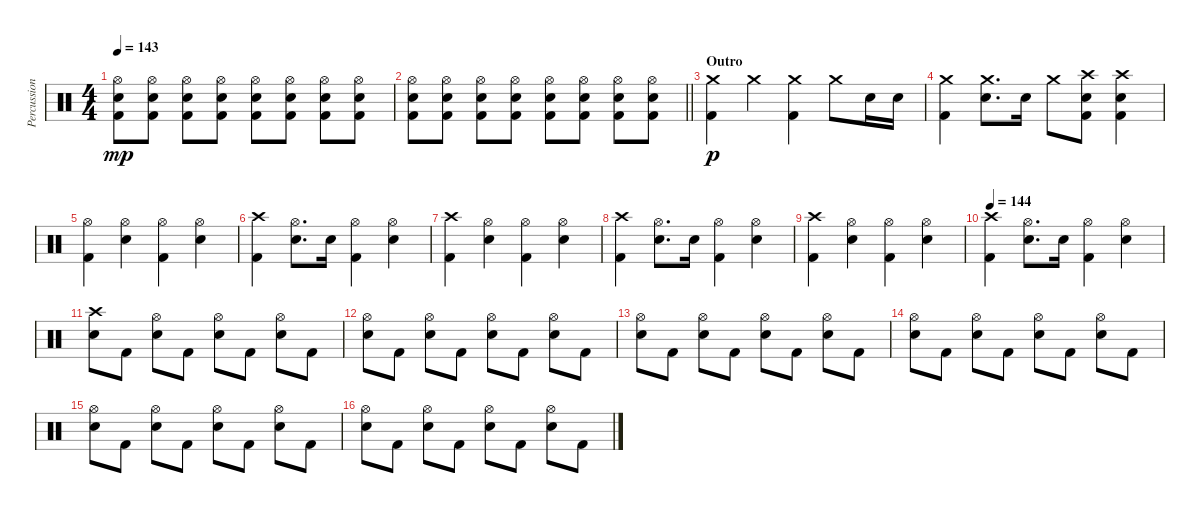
\track ("Percussion" "Percussion") {instrument percussion}
\staff {score}
\articulation defaults
\ts (4 4)
\tempo 143
\clef neutral
\ks c
("Hi-Hat (open)" "Snare (hit) 2" "Kick (hit) 2").8{dy mp} ("Hi-Hat (open)" "Snare (hit) 2" "Kick (hit) 2").8 ("Hi-Hat (open)" "Snare (hit) 2" "Kick (hit) 2").8 ("Hi-Hat (open)" "Snare (hit) 2" "Kick (hit) 2").8 ("Hi-Hat (open)" "Snare (hit) 2" "Kick (hit) 2").8 ("Hi-Hat (open)" "Snare (hit) 2" "Kick (hit) 2").8 ("Hi-Hat (open)" "Snare (hit) 2" "Kick (hit) 2").8 ("Hi-Hat (open)" "Snare (hit) 2" "Kick (hit) 2").8 |
\barLineRight lightlight
("Hi-Hat (open)" "Snare (hit) 2" "Kick (hit) 2").8 ("Hi-Hat (open)" "Snare (hit) 2" "Kick (hit) 2").8 ("Hi-Hat (open)" "Snare (hit) 2" "Kick (hit) 2").8 ("Hi-Hat (open)" "Snare (hit) 2" "Kick (hit) 2").8 ("Hi-Hat (open)" "Snare (hit) 2" "Kick (hit) 2").8 ("Hi-Hat (open)" "Snare (hit) 2" "Kick (hit) 2").8 ("Hi-Hat (open)" "Snare (hit) 2" "Kick (hit) 2").8 ("Hi-Hat (open)" "Snare (hit) 2" "Kick (hit) 2").8 |
\section ("" "Outro")
("Crash medium (hit)" "Kick (hit) 2").4{dy p} "Crash medium (hit)".4 ("Crash medium (hit)" "Kick (hit) 2").4 "Crash medium (hit)".8 "Snare (hit) 2".16 "Snare (hit) 2".16 |
("Crash medium (hit)" "Kick (hit) 2").4 ("Crash medium (hit)" "Snare (hit) 2").8{d} "Snare (hit) 2".16 "Crash medium (hit)".8 ("Crash high (hit)" "Snare (hit) 2" "Kick (hit) 2").8 ("Crash high (hit)" "Snare (hit) 2" "Kick (hit) 2").4 |
("Hi-Hat (open)" "Kick (hit) 2").4 ("Hi-Hat (open)" "Snare (hit) 2").4 ("Hi-Hat (open)" "Kick (hit) 2").4 ("Hi-Hat (open)" "Snare (hit) 2").4 |
("Crash high (hit)" "Kick (hit) 2").4 ("Hi-Hat (open)" "Snare (hit) 2").8{d} "Snare (hit) 2".16 ("Hi-Hat (open)" "Kick (hit) 2").4 ("Hi-Hat (open)" "Snare (hit) 2").4 |
("Crash high (hit)" "Kick (hit) 2").4 ("Hi-Hat (open)" "Snare (hit) 2").4 ("Hi-Hat (open)" "Kick (hit) 2").4 ("Hi-Hat (open)" "Snare (hit) 2").4 |
("Crash high (hit)" "Kick (hit) 2").4 ("Hi-Hat (open)" "Snare (hit) 2").8{d} "Snare (hit) 2".16 ("Hi-Hat (open)" "Kick (hit) 2").4 ("Hi-Hat (open)" "Snare (hit) 2").4 |
("Crash high (hit)" "Kick (hit) 2").4 ("Hi-Hat (open)" "Snare (hit) 2").4 ("Hi-Hat (open)" "Kick (hit) 2").4 ("Hi-Hat (open)" "Snare (hit) 2").4 |
\tempo 144
("Crash high (hit)" "Kick (hit) 2").4 ("Hi-Hat (open)" "Snare (hit) 2").8{d} "Snare (hit) 2".16 ("Hi-Hat (open)" "Kick (hit) 2").4 ("Hi-Hat (open)" "Snare (hit) 2").4 |
("Crash high (hit)" "Snare (hit) 2").8 "Kick (hit) 2".8 ("Hi-Hat (open)" "Snare (hit) 2").8 "Kick (hit) 2".8 ("Hi-Hat (open)" "Snare (hit) 2").8 "Kick (hit) 2".8 ("Hi-Hat (open)" "Snare (hit) 2").8 "Kick (hit) 2".8 |
("Hi-Hat (open)" "Snare (hit) 2").8 "Kick (hit) 2".8 ("Hi-Hat (open)" "Snare (hit) 2").8 "Kick (hit) 2".8 ("Hi-Hat (open)" "Snare (hit) 2").8 "Kick (hit) 2".8 ("Hi-Hat (open)" "Snare (hit) 2").8 "Kick (hit) 2".8 |
("Hi-Hat (open)" "Snare (hit) 2").8 "Kick (hit) 2".8 ("Hi-Hat (open)" "Snare (hit) 2").8 "Kick (hit) 2".8 ("Hi-Hat (open)" "Snare (hit) 2").8 "Kick (hit) 2".8 ("Hi-Hat (open)" "Snare (hit) 2").8 "Kick (hit) 2".8 |
("Hi-Hat (open)" "Snare (hit) 2").8 "Kick (hit) 2".8 ("Hi-Hat (open)" "Snare (hit) 2").8 "Kick (hit) 2".8 ("Hi-Hat (open)" "Snare (hit) 2").8 "Kick (hit) 2".8 ("Hi-Hat (open)" "Snare (hit) 2").8 "Kick (hit) 2".8 |
("Hi-Hat (open)" "Snare (hit) 2").8 "Kick (hit) 2".8 ("Hi-Hat (open)" "Snare (hit) 2").8 "Kick (hit) 2".8 ("Hi-Hat (open)" "Snare (hit) 2").8 "Kick (hit) 2".8 ("Hi-Hat (open)" "Snare (hit) 2").8 "Kick (hit) 2".8 |
("Hi-Hat (open)" "Snare (hit) 2").8 "Kick (hit) 2".8 ("Hi-Hat (open)" "Snare (hit) 2").8 "Kick (hit) 2".8 ("Hi-Hat (open)" "Snare (hit) 2").8 "Kick (hit) 2".8 ("Hi-Hat (open)" "Snare (hit) 2").8 "Kick (hit) 2".8
